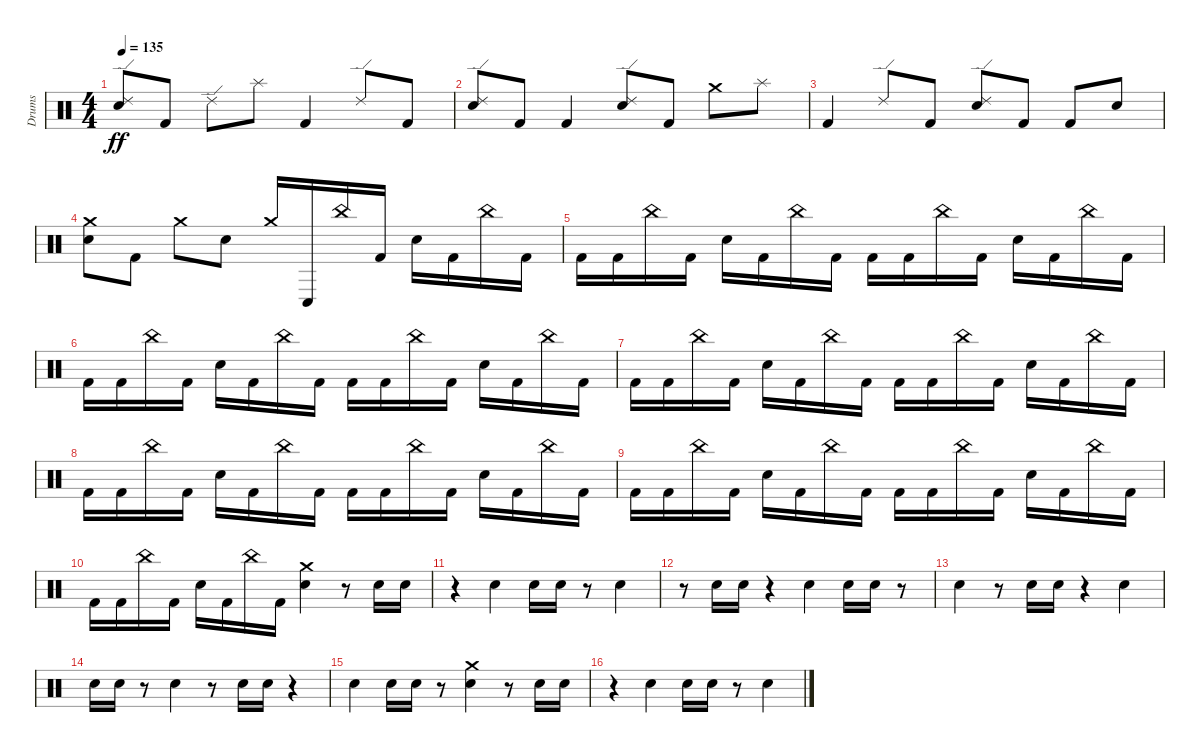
\track ("Drums" "Drums") {instrument percussion}
\staff {score}
\articulation defaults
\ts (4 4)
\tempo 135
\clef neutral
\ks c
("Electric Snare (hit)" "Ride (edge) 2").8{dy ff} "Kick (hit) 2".8 "Ride (edge) 2".8 "Splash (hit)".8 "Kick (hit) 2".4 "Ride (edge) 2".8 "Kick (hit) 2".8 |
("Electric Snare (hit)" "Ride (edge) 2").8 "Kick (hit) 2".8 "Kick (hit) 2".4 ("Electric Snare (hit)" "Ride (edge) 2").8 "Kick (hit) 2".8 "Crash medium (hit)".8 "Splash (hit)".8 |
"Kick (hit) 2".4 "Ride (edge) 2".8 "Kick (hit) 2".8 ("Electric Snare (hit)" "Ride (edge) 2").8 "Kick (hit) 2".8 "Kick (hit) 2".8 "Electric Snare (hit)".8 |
("Electric Snare (hit)" "Crash medium (hit)").8 "Kick (hit) 2".8 "Crash medium (hit)".8 "Electric Snare (hit)".8 "Crash medium (hit)".16 "Conga low (hit)".16 "China (hit)".16 "Kick (hit) 2".16 "Electric Snare (hit)".16 "Kick (hit) 2".16 "China (hit)".16 "Kick (hit) 2".16 |
"Kick (hit) 2".16 "Kick (hit) 2".16 "China (hit)".16 "Kick (hit) 2".16 "Electric Snare (hit)".16 "Kick (hit) 2".16 "China (hit)".16 "Kick (hit) 2".16 "Kick (hit) 2".16 "Kick (hit) 2".16 "China (hit)".16 "Kick (hit) 2".16 "Electric Snare (hit)".16 "Kick (hit) 2".16 "China (hit)".16 "Kick (hit) 2".16 |
"Kick (hit) 2".16 "Kick (hit) 2".16 "China (hit)".16 "Kick (hit) 2".16 "Electric Snare (hit)".16 "Kick (hit) 2".16 "China (hit)".16 "Kick (hit) 2".16 "Kick (hit) 2".16 "Kick (hit) 2".16 "China (hit)".16 "Kick (hit) 2".16 "Electric Snare (hit)".16 "Kick (hit) 2".16 "China (hit)".16 "Kick (hit) 2".16 |
"Kick (hit) 2".16 "Kick (hit) 2".16 "China (hit)".16 "Kick (hit) 2".16 "Electric Snare (hit)".16 "Kick (hit) 2".16 "China (hit)".16 "Kick (hit) 2".16 "Kick (hit) 2".16 "Kick (hit) 2".16 "China (hit)".16 "Kick (hit) 2".16 "Electric Snare (hit)".16 "Kick (hit) 2".16 "China (hit)".16 "Kick (hit) 2".16 |
"Kick (hit) 2".16 "Kick (hit) 2".16 "China (hit)".16 "Kick (hit) 2".16 "Electric Snare (hit)".16 "Kick (hit) 2".16 "China (hit)".16 "Kick (hit) 2".16 "Kick (hit) 2".16 "Kick (hit) 2".16 "China (hit)".16 "Kick (hit) 2".16 "Electric Snare (hit)".16 "Kick (hit) 2".16 "China (hit)".16 "Kick (hit) 2".16 |
"Kick (hit) 2".16 "Kick (hit) 2".16 "China (hit)".16 "Kick (hit) 2".16 "Electric Snare (hit)".16 "Kick (hit) 2".16 "China (hit)".16 "Kick (hit) 2".16 "Kick (hit) 2".16 "Kick (hit) 2".16 "China (hit)".16 "Kick (hit) 2".16 "Electric Snare (hit)".16 "Kick (hit) 2".16 "China (hit)".16 "Kick (hit) 2".16 |
"Kick (hit) 2".16 "Kick (hit) 2".16 "China (hit)".16 "Kick (hit) 2".16 "Electric Snare (hit)".16 "Kick (hit) 2".16 "China (hit)".16 "Kick (hit) 2".16 ("Electric Snare (hit)" "Crash medium (hit)").4 r.8 "Electric Snare (hit)".16 "Electric Snare (hit)".16 |
r.4 "Electric Snare (hit)".4 "Electric Snare (hit)".16 "Electric Snare (hit)".16 r.8 "Electric Snare (hit)".4 |
r.8 "Electric Snare (hit)".16 "Electric Snare (hit)".16 r.4 "Electric Snare (hit)".4 "Electric Snare (hit)".16 "Electric Snare (hit)".16 r.8 |
"Electric Snare (hit)".4 r.8 "Electric Snare (hit)".16 "Electric Snare (hit)".16 r.4 "Electric Snare (hit)".4 |
"Electric Snare (hit)".16 "Electric Snare (hit)".16 r.8 "Electric Snare (hit)".4 r.8 "Electric Snare (hit)".16 "Electric Snare (hit)".16 r.4 |
"Electric Snare (hit)".4 "Electric Snare (hit)".16 "Electric Snare (hit)".16 r.8 ("Electric Snare (hit)" "Crash medium (hit)").4 r.8 "Electric Snare (hit)".16 "Electric Snare (hit)".16 |
r.4 "Electric Snare (hit)".4 "Electric Snare (hit)".16 "Electric Snare (hit)".16 r.8 "Electric Snare (hit)".4
